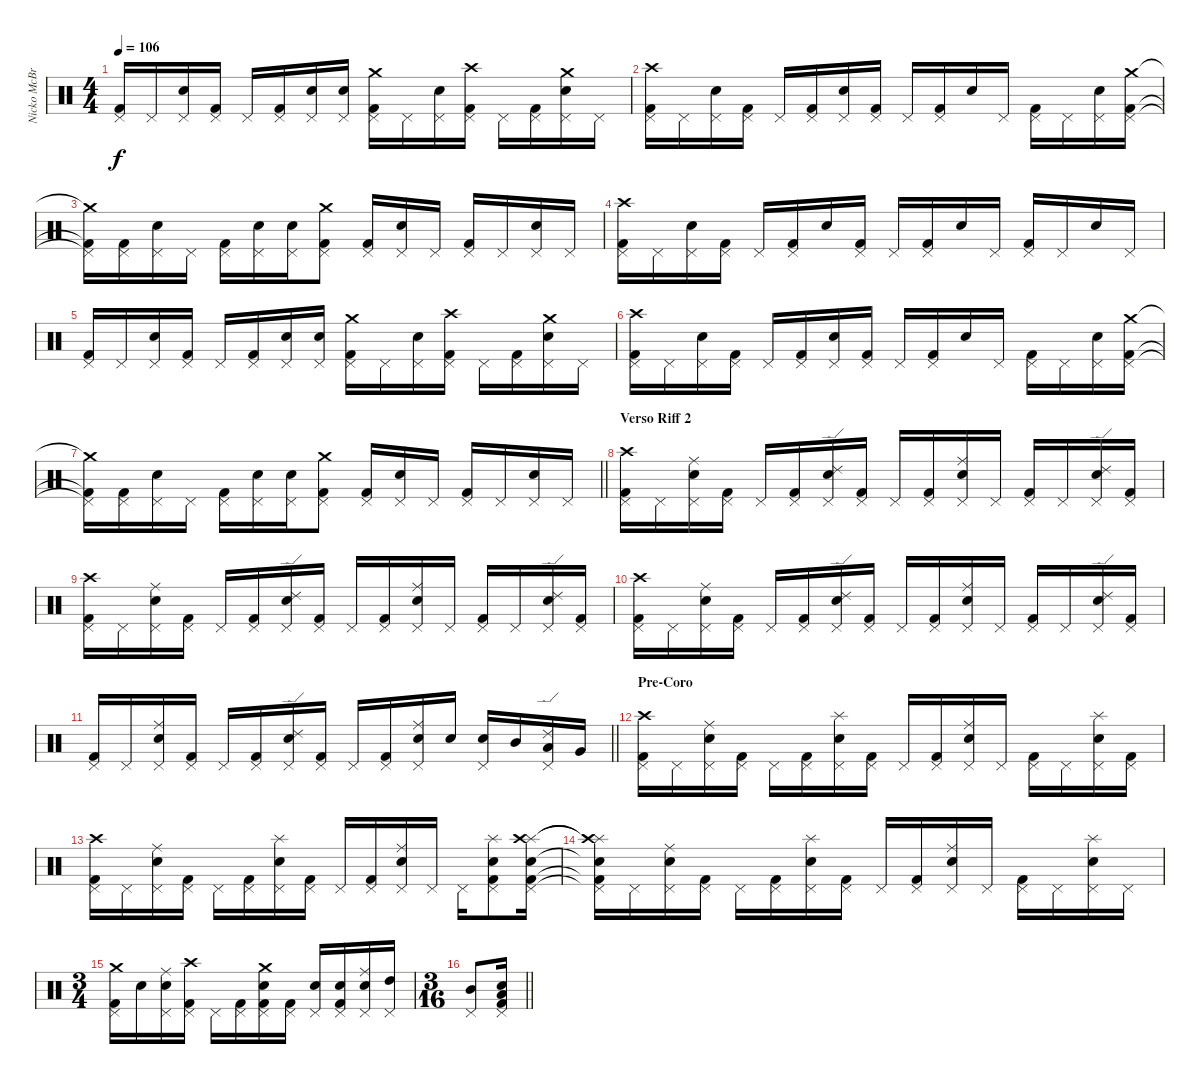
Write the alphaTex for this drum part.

\track ("Nicko McBrain" "Nicko McBr") {instrument percussion}
\staff {score}
\articulation defaults
\ts (4 4)
\tempo 106
\clef neutral
\ks c
("Pedal Hi-Hat (hit)" "Kick (hit) 2").16{dy f} "Pedal Hi-Hat (hit)".16 ("Pedal Hi-Hat (hit)" "Snare (hit) 2").16 ("Pedal Hi-Hat (hit)" "Kick (hit) 2").16 "Pedal Hi-Hat (hit)".16 ("Pedal Hi-Hat (hit)" "Kick (hit) 2").16 ("Pedal Hi-Hat (hit)" "Snare (hit) 2").16 ("Pedal Hi-Hat (hit)" "Snare (hit) 2").16 ("Pedal Hi-Hat (hit)" "Crash medium (hit)" "Kick (hit) 2").16 "Pedal Hi-Hat (hit)".16 ("Pedal Hi-Hat (hit)" "Snare (hit) 2").16 ("Pedal Hi-Hat (hit)" "Crash high (hit)" "Kick (hit) 2").16 "Pedal Hi-Hat (hit)".16 ("Pedal Hi-Hat (hit)" "Kick (hit) 2").16 ("Pedal Hi-Hat (hit)" "Snare (hit) 2" "Crash medium (hit)").16 "Pedal Hi-Hat (hit)".16 |
("Pedal Hi-Hat (hit)" "Crash high (hit)" "Kick (hit) 2").16 "Pedal Hi-Hat (hit)".16 ("Pedal Hi-Hat (hit)" "Snare (hit) 2").16 ("Pedal Hi-Hat (hit)" "Kick (hit) 2").16 "Pedal Hi-Hat (hit)".16 ("Pedal Hi-Hat (hit)" "Kick (hit) 2").16 ("Pedal Hi-Hat (hit)" "Snare (hit) 2").16 ("Pedal Hi-Hat (hit)" "Kick (hit) 2").16 "Pedal Hi-Hat (hit)".16 ("Pedal Hi-Hat (hit)" "Kick (hit) 2").16 "Snare (hit) 2".16 "Pedal Hi-Hat (hit)".16 ("Pedal Hi-Hat (hit)" "Kick (hit) 2").16 "Pedal Hi-Hat (hit)".16 ("Pedal Hi-Hat (hit)" "Snare (hit) 2").16 ("Pedal Hi-Hat (hit)" "Crash medium (hit)" "Kick (hit) 2").16 |
("Pedal Hi-Hat (hit)"{t} "Crash medium (hit)"{t} "Kick (hit) 2"{t}).16 ("Pedal Hi-Hat (hit)" "Kick (hit) 2").16 ("Pedal Hi-Hat (hit)" "Snare (hit) 2").16 "Pedal Hi-Hat (hit)".16 ("Pedal Hi-Hat (hit)" "Kick (hit) 2").16 ("Pedal Hi-Hat (hit)" "Snare (hit) 2").16 ("Pedal Hi-Hat (hit)" "Snare (hit) 2").16 ("Pedal Hi-Hat (hit)" "Crash medium (hit)" "Kick (hit) 2").8 ("Pedal Hi-Hat (hit)" "Kick (hit) 2").16 ("Pedal Hi-Hat (hit)" "Snare (hit) 2").16 "Pedal Hi-Hat (hit)".16 ("Pedal Hi-Hat (hit)" "Kick (hit) 2").16 "Pedal Hi-Hat (hit)".16 ("Pedal Hi-Hat (hit)" "Snare (hit) 2").16 "Pedal Hi-Hat (hit)".16 |
("Pedal Hi-Hat (hit)" "Crash high (hit)" "Kick (hit) 2").16 "Pedal Hi-Hat (hit)".16 ("Pedal Hi-Hat (hit)" "Snare (hit) 2").16 ("Pedal Hi-Hat (hit)" "Kick (hit) 2").16 "Pedal Hi-Hat (hit)".16 ("Pedal Hi-Hat (hit)" "Kick (hit) 2").16 "Snare (hit) 2".16 ("Pedal Hi-Hat (hit)" "Kick (hit) 2").16 "Pedal Hi-Hat (hit)".16 ("Pedal Hi-Hat (hit)" "Kick (hit) 2").16 "Snare (hit) 2".16 "Pedal Hi-Hat (hit)".16 ("Pedal Hi-Hat (hit)" "Kick (hit) 2").16 "Pedal Hi-Hat (hit)".16 "Snare (hit) 2".16 "Pedal Hi-Hat (hit)".16 |
("Pedal Hi-Hat (hit)" "Kick (hit) 2").16 "Pedal Hi-Hat (hit)".16 ("Pedal Hi-Hat (hit)" "Snare (hit) 2").16 ("Pedal Hi-Hat (hit)" "Kick (hit) 2").16 "Pedal Hi-Hat (hit)".16 ("Pedal Hi-Hat (hit)" "Kick (hit) 2").16 ("Pedal Hi-Hat (hit)" "Snare (hit) 2").16 ("Pedal Hi-Hat (hit)" "Snare (hit) 2").16 ("Pedal Hi-Hat (hit)" "Crash medium (hit)" "Kick (hit) 2").16 "Pedal Hi-Hat (hit)".16 ("Pedal Hi-Hat (hit)" "Snare (hit) 2").16 ("Pedal Hi-Hat (hit)" "Crash high (hit)" "Kick (hit) 2").16 "Pedal Hi-Hat (hit)".16 ("Pedal Hi-Hat (hit)" "Kick (hit) 2").16 ("Pedal Hi-Hat (hit)" "Snare (hit) 2" "Crash medium (hit)").16 "Pedal Hi-Hat (hit)".16 |
("Pedal Hi-Hat (hit)" "Crash high (hit)" "Kick (hit) 2").16 "Pedal Hi-Hat (hit)".16 ("Pedal Hi-Hat (hit)" "Snare (hit) 2").16 ("Pedal Hi-Hat (hit)" "Kick (hit) 2").16 "Pedal Hi-Hat (hit)".16 ("Pedal Hi-Hat (hit)" "Kick (hit) 2").16 ("Pedal Hi-Hat (hit)" "Snare (hit) 2").16 ("Pedal Hi-Hat (hit)" "Kick (hit) 2").16 "Pedal Hi-Hat (hit)".16 ("Pedal Hi-Hat (hit)" "Kick (hit) 2").16 "Snare (hit) 2".16 "Pedal Hi-Hat (hit)".16 ("Pedal Hi-Hat (hit)" "Kick (hit) 2").16 "Pedal Hi-Hat (hit)".16 ("Pedal Hi-Hat (hit)" "Snare (hit) 2").16 ("Pedal Hi-Hat (hit)" "Crash medium (hit)" "Kick (hit) 2").16 |
\barLineRight lightlight
("Pedal Hi-Hat (hit)"{t} "Crash medium (hit)"{t} "Kick (hit) 2"{t}).16 ("Pedal Hi-Hat (hit)" "Kick (hit) 2").16 ("Pedal Hi-Hat (hit)" "Snare (hit) 2").16 "Pedal Hi-Hat (hit)".16 ("Pedal Hi-Hat (hit)" "Kick (hit) 2").16 ("Pedal Hi-Hat (hit)" "Snare (hit) 2").16 ("Pedal Hi-Hat (hit)" "Snare (hit) 2").16 ("Pedal Hi-Hat (hit)" "Crash medium (hit)" "Kick (hit) 2").8 ("Pedal Hi-Hat (hit)" "Kick (hit) 2").16 ("Pedal Hi-Hat (hit)" "Snare (hit) 2").16 "Pedal Hi-Hat (hit)".16 ("Pedal Hi-Hat (hit)" "Kick (hit) 2").16 "Pedal Hi-Hat (hit)".16 ("Pedal Hi-Hat (hit)" "Snare (hit) 2").16 "Pedal Hi-Hat (hit)".16 |
\section ("" "Verso Riff 2")
("Pedal Hi-Hat (hit)" "Crash high (hit)" "Kick (hit) 2").16 "Pedal Hi-Hat (hit)".16 ("Pedal Hi-Hat (hit)" "Snare (hit) 2" "Ride (middle)").16 ("Pedal Hi-Hat (hit)" "Kick (hit) 2").16 "Pedal Hi-Hat (hit)".16 ("Pedal Hi-Hat (hit)" "Kick (hit) 2").16 ("Pedal Hi-Hat (hit)" "Snare (hit) 2" "Ride (edge) 2").16 ("Pedal Hi-Hat (hit)" "Kick (hit) 2").16 "Pedal Hi-Hat (hit)".16 ("Pedal Hi-Hat (hit)" "Kick (hit) 2").16 ("Pedal Hi-Hat (hit)" "Snare (hit) 2" "Ride (middle)").16 "Pedal Hi-Hat (hit)".16 ("Pedal Hi-Hat (hit)" "Kick (hit) 2").16 "Pedal Hi-Hat (hit)".16 ("Pedal Hi-Hat (hit)" "Snare (hit) 2" "Ride (edge) 2").16 ("Pedal Hi-Hat (hit)" "Kick (hit) 2").16 |
("Pedal Hi-Hat (hit)" "Crash high (hit)" "Kick (hit) 2").16 "Pedal Hi-Hat (hit)".16 ("Pedal Hi-Hat (hit)" "Snare (hit) 2" "Ride (middle)").16 ("Pedal Hi-Hat (hit)" "Kick (hit) 2").16 "Pedal Hi-Hat (hit)".16 ("Pedal Hi-Hat (hit)" "Kick (hit) 2").16 ("Pedal Hi-Hat (hit)" "Snare (hit) 2" "Ride (edge) 2").16 ("Pedal Hi-Hat (hit)" "Kick (hit) 2").16 "Pedal Hi-Hat (hit)".16 ("Pedal Hi-Hat (hit)" "Kick (hit) 2").16 ("Pedal Hi-Hat (hit)" "Snare (hit) 2" "Ride (middle)").16 "Pedal Hi-Hat (hit)".16 ("Pedal Hi-Hat (hit)" "Kick (hit) 2").16 "Pedal Hi-Hat (hit)".16 ("Pedal Hi-Hat (hit)" "Snare (hit) 2" "Ride (edge) 2").16 ("Pedal Hi-Hat (hit)" "Kick (hit) 2").16 |
("Pedal Hi-Hat (hit)" "Crash high (hit)" "Kick (hit) 2").16 "Pedal Hi-Hat (hit)".16 ("Pedal Hi-Hat (hit)" "Snare (hit) 2" "Ride (middle)").16 ("Pedal Hi-Hat (hit)" "Kick (hit) 2").16 "Pedal Hi-Hat (hit)".16 ("Pedal Hi-Hat (hit)" "Kick (hit) 2").16 ("Pedal Hi-Hat (hit)" "Snare (hit) 2" "Ride (edge) 2").16 ("Pedal Hi-Hat (hit)" "Kick (hit) 2").16 "Pedal Hi-Hat (hit)".16 ("Pedal Hi-Hat (hit)" "Kick (hit) 2").16 ("Pedal Hi-Hat (hit)" "Snare (hit) 2" "Ride (middle)").16 "Pedal Hi-Hat (hit)".16 ("Pedal Hi-Hat (hit)" "Kick (hit) 2").16 "Pedal Hi-Hat (hit)".16 ("Pedal Hi-Hat (hit)" "Snare (hit) 2" "Ride (edge) 2").16 ("Pedal Hi-Hat (hit)" "Kick (hit) 2").16 |
\barLineRight lightlight
("Pedal Hi-Hat (hit)" "Kick (hit) 2").16 "Pedal Hi-Hat (hit)".16 ("Pedal Hi-Hat (hit)" "Snare (hit) 2" "Ride (middle)").16 ("Pedal Hi-Hat (hit)" "Kick (hit) 2").16 "Pedal Hi-Hat (hit)".16 ("Pedal Hi-Hat (hit)" "Kick (hit) 2").16 ("Pedal Hi-Hat (hit)" "Snare (hit) 2" "Ride (edge) 2").16 ("Pedal Hi-Hat (hit)" "Kick (hit) 2").16 "Pedal Hi-Hat (hit)".16 ("Pedal Hi-Hat (hit)" "Kick (hit) 2").16 ("Pedal Hi-Hat (hit)" "Snare (hit) 2" "Ride (middle)").16 "Snare (hit) 2".16 ("Pedal Hi-Hat (hit)" "Snare (hit) 2").16 "Mid Tom (hit)".16 ("Pedal Hi-Hat (hit)" "Low Tom (hit)" "Ride (edge) 2").16 "Very Low Tom (hit)".16 |
\section ("" "Pre-Coro")
("Pedal Hi-Hat (hit)" "Crash high (hit)" "Kick (hit) 2").16 "Pedal Hi-Hat (hit)".16 ("Pedal Hi-Hat (hit)" "Snare (hit) 2" "Ride (middle)").16 ("Pedal Hi-Hat (hit)" "Kick (hit) 2").16 "Pedal Hi-Hat (hit)".16 ("Pedal Hi-Hat (hit)" "Kick (hit) 2").16 ("Pedal Hi-Hat (hit)" "Snare (hit) 2" "Splash (hit)").16 ("Pedal Hi-Hat (hit)" "Kick (hit) 2").16 "Pedal Hi-Hat (hit)".16 ("Pedal Hi-Hat (hit)" "Kick (hit) 2").16 ("Pedal Hi-Hat (hit)" "Snare (hit) 2" "Ride (middle)").16 "Pedal Hi-Hat (hit)".16 ("Pedal Hi-Hat (hit)" "Kick (hit) 2").16 "Pedal Hi-Hat (hit)".16 ("Pedal Hi-Hat (hit)" "Snare (hit) 2" "Splash (hit)").16 ("Pedal Hi-Hat (hit)" "Kick (hit) 2").16 |
("Pedal Hi-Hat (hit)" "Crash high (hit)" "Kick (hit) 2").16 "Pedal Hi-Hat (hit)".16 ("Pedal Hi-Hat (hit)" "Snare (hit) 2" "Ride (middle)").16 ("Pedal Hi-Hat (hit)" "Kick (hit) 2").16 "Pedal Hi-Hat (hit)".16 ("Pedal Hi-Hat (hit)" "Kick (hit) 2").16 ("Pedal Hi-Hat (hit)" "Snare (hit) 2" "Splash (hit)").16 ("Pedal Hi-Hat (hit)" "Kick (hit) 2").16 "Pedal Hi-Hat (hit)".16 ("Pedal Hi-Hat (hit)" "Kick (hit) 2").16 ("Pedal Hi-Hat (hit)" "Snare (hit) 2" "Ride (middle)").16 "Pedal Hi-Hat (hit)".16 "Pedal Hi-Hat (hit)".16 ("Pedal Hi-Hat (hit)" "Snare (hit) 2" "Splash (hit)" "Kick (hit) 2").8 ("Pedal Hi-Hat (hit)" "Snare (hit) 2" "Splash (hit)" "Crash high (hit)" "Kick (hit) 2").16 |
("Pedal Hi-Hat (hit)"{t} "Snare (hit) 2"{t} "Splash (hit)"{t} "Crash high (hit)"{t} "Kick (hit) 2"{t}).16 "Pedal Hi-Hat (hit)".16 ("Pedal Hi-Hat (hit)" "Snare (hit) 2" "Ride (middle)").16 ("Pedal Hi-Hat (hit)" "Kick (hit) 2").16 "Pedal Hi-Hat (hit)".16 ("Pedal Hi-Hat (hit)" "Kick (hit) 2").16 ("Pedal Hi-Hat (hit)" "Snare (hit) 2" "Splash (hit)").16 ("Pedal Hi-Hat (hit)" "Kick (hit) 2").16 "Pedal Hi-Hat (hit)".16 ("Pedal Hi-Hat (hit)" "Kick (hit) 2").16 ("Pedal Hi-Hat (hit)" "Snare (hit) 2" "Ride (middle)").16 "Pedal Hi-Hat (hit)".16 ("Pedal Hi-Hat (hit)" "Kick (hit) 2").16 "Pedal Hi-Hat (hit)".16 ("Pedal Hi-Hat (hit)" "Snare (hit) 2" "Splash (hit)").16 "Pedal Hi-Hat (hit)".16 |
\ts (3 4)
("Pedal Hi-Hat (hit)" "Crash medium (hit)" "Kick (hit) 2").16 "Snare (hit) 2".16 ("Pedal Hi-Hat (hit)" "Snare (hit) 2" "Ride (middle)").16 ("Pedal Hi-Hat (hit)" "Crash high (hit)" "Kick (hit) 2").16 "Pedal Hi-Hat (hit)".16 ("Pedal Hi-Hat (hit)" "Kick (hit) 2").16 ("Pedal Hi-Hat (hit)" "Snare (hit) 2" "Crash medium (hit)" "Kick (hit) 2").16 ("Pedal Hi-Hat (hit)" "Kick (hit) 2").16 ("Pedal Hi-Hat (hit)" "Snare (hit) 2").16 ("Pedal Hi-Hat (hit)" "Snare (hit) 2" "Kick (hit) 2").16 ("Pedal Hi-Hat (hit)" "Snare (hit) 2" "Ride (middle)").16 ("Pedal Hi-Hat (hit)" "High Tom (hit)").16 |
\ts (3 16)
\barLineRight lightlight
("Pedal Hi-Hat (hit)" "Mid Tom (hit)").8 ("Pedal Hi-Hat (hit)" "Snare (hit) 2" "Low Tom (hit)" "Kick (hit) 2").16
